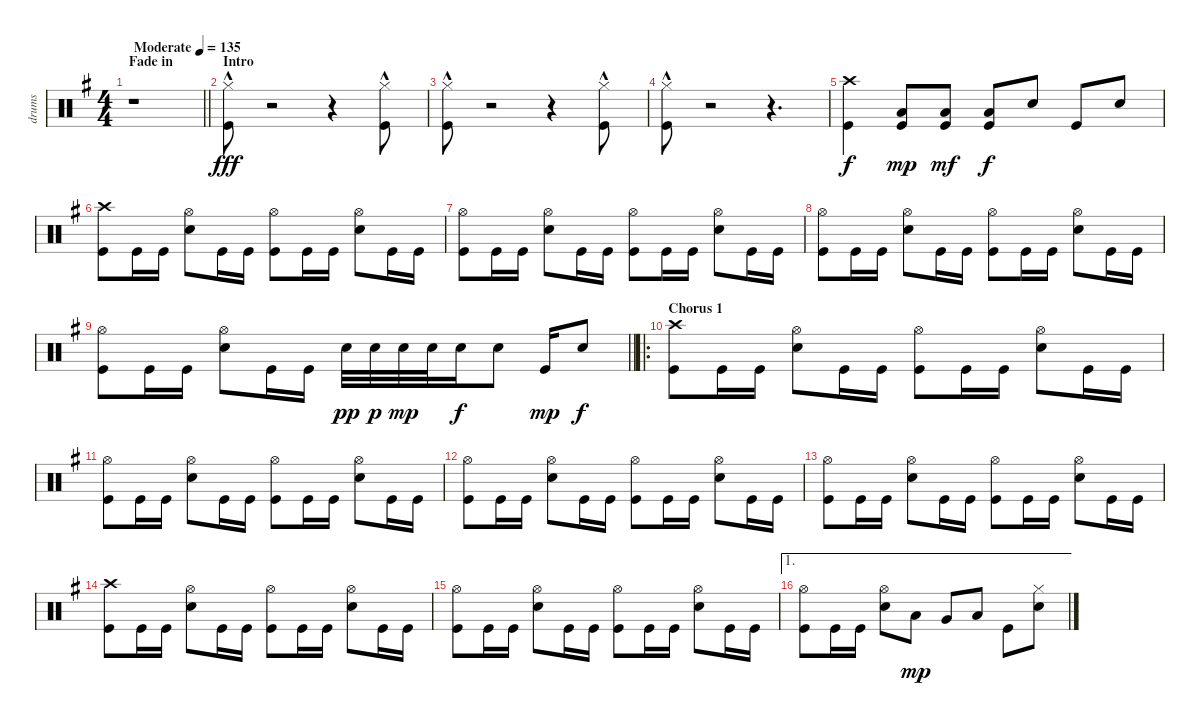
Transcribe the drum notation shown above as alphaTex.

\track ("drums" "drums") {instrument percussion}
\staff {score}
\articulation defaults
\ts (4 4)
\section ("" "Fade in")
\tempo (135 "Moderate")
\clef neutral
\barLineRight lightlight
\ks eminor
r.1{dy fff} |
\section ("" "Intro")
("Hi-Hat (closed)"{hac} "Kick (hit)"{hac}).8 r.2 r.4 ("Hi-Hat (closed)"{hac} "Kick (hit)"{hac}).8 |
("Hi-Hat (closed)"{hac} "Kick (hit)"{hac}).8 r.2 r.4 ("Hi-Hat (closed)"{hac} "Kick (hit)"{hac}).8 |
("Hi-Hat (closed)"{hac} "Kick (hit)"{hac}).8 r.2 r.4{d} |
("Crash high (hit)" "Kick (hit)").4{dy f} ("Low Floor Tom (hit)" "Kick (hit)").8{dy mp} ("Low Floor Tom (hit)" "Kick (hit)").8{dy mf} ("Low Floor Tom (hit)" "Kick (hit)").8{dy f} "Snare (hit) 2".8 "Kick (hit)".8 "Snare (hit) 2".8 |
("Crash high (hit)" "Kick (hit)").8 "Kick (hit)".16 "Kick (hit)".16 ("Hi-Hat (open)" "Snare (hit) 2").8 "Kick (hit)".16 "Kick (hit)".16 ("Hi-Hat (open)" "Kick (hit)").8 "Kick (hit)".16 "Kick (hit)".16 ("Hi-Hat (open)" "Snare (hit) 2").8 "Kick (hit)".16 "Kick (hit)".16 |
("Hi-Hat (open)" "Kick (hit)").8 "Kick (hit)".16 "Kick (hit)".16 ("Hi-Hat (open)" "Snare (hit) 2").8 "Kick (hit)".16 "Kick (hit)".16 ("Hi-Hat (open)" "Kick (hit)").8 "Kick (hit)".16 "Kick (hit)".16 ("Hi-Hat (open)" "Snare (hit) 2").8 "Kick (hit)".16 "Kick (hit)".16 |
("Hi-Hat (open)" "Kick (hit)").8 "Kick (hit)".16 "Kick (hit)".16 ("Hi-Hat (open)" "Snare (hit) 2").8 "Kick (hit)".16 "Kick (hit)".16 ("Hi-Hat (open)" "Kick (hit)").8 "Kick (hit)".16 "Kick (hit)".16 ("Hi-Hat (open)" "Snare (hit) 2").8 "Kick (hit)".16 "Kick (hit)".16 |
\barLineRight lightlight
("Hi-Hat (open)" "Kick (hit)").8 "Kick (hit)".16 "Kick (hit)".16 ("Hi-Hat (open)" "Snare (hit) 2").8 "Kick (hit)".16 "Kick (hit)".16 "Snare (hit) 2".32{dy pp} "Snare (hit) 2".32{dy p} "Snare (hit) 2".32{dy mp} "Snare (hit) 2".32 "Snare (hit) 2".16{dy f} "Snare (hit) 2".8 "Kick (hit)".16{dy mp} "Snare (hit) 2".8{dy f} |
\ro
\section ("" "Chorus 1")
("Crash high (hit)" "Kick (hit)").8 "Kick (hit)".16 "Kick (hit)".16 ("Hi-Hat (open)" "Snare (hit) 2").8 "Kick (hit)".16 "Kick (hit)".16 ("Hi-Hat (open)" "Kick (hit)").8 "Kick (hit)".16 "Kick (hit)".16 ("Hi-Hat (open)" "Snare (hit) 2").8 "Kick (hit)".16 "Kick (hit)".16 |
("Hi-Hat (open)" "Kick (hit)").8 "Kick (hit)".16 "Kick (hit)".16 ("Hi-Hat (open)" "Snare (hit) 2").8 "Kick (hit)".16 "Kick (hit)".16 ("Hi-Hat (open)" "Kick (hit)").8 "Kick (hit)".16 "Kick (hit)".16 ("Hi-Hat (open)" "Snare (hit) 2").8 "Kick (hit)".16 "Kick (hit)".16 |
("Hi-Hat (open)" "Kick (hit)").8 "Kick (hit)".16 "Kick (hit)".16 ("Hi-Hat (open)" "Snare (hit) 2").8 "Kick (hit)".16 "Kick (hit)".16 ("Hi-Hat (open)" "Kick (hit)").8 "Kick (hit)".16 "Kick (hit)".16 ("Hi-Hat (open)" "Snare (hit) 2").8 "Kick (hit)".16 "Kick (hit)".16 |
("Hi-Hat (open)" "Kick (hit)").8 "Kick (hit)".16 "Kick (hit)".16 ("Hi-Hat (open)" "Snare (hit) 2").8 "Kick (hit)".16 "Kick (hit)".16 ("Hi-Hat (open)" "Kick (hit)").8 "Kick (hit)".16 "Kick (hit)".16 ("Hi-Hat (open)" "Snare (hit) 2").8 "Kick (hit)".16 "Kick (hit)".16 |
("Crash high (hit)" "Kick (hit)").8 "Kick (hit)".16 "Kick (hit)".16 ("Hi-Hat (open)" "Snare (hit) 2").8 "Kick (hit)".16 "Kick (hit)".16 ("Hi-Hat (open)" "Kick (hit)").8 "Kick (hit)".16 "Kick (hit)".16 ("Hi-Hat (open)" "Snare (hit) 2").8 "Kick (hit)".16 "Kick (hit)".16 |
("Hi-Hat (open)" "Kick (hit)").8 "Kick (hit)".16 "Kick (hit)".16 ("Hi-Hat (open)" "Snare (hit) 2").8 "Kick (hit)".16 "Kick (hit)".16 ("Hi-Hat (open)" "Kick (hit)").8 "Kick (hit)".16 "Kick (hit)".16 ("Hi-Hat (open)" "Snare (hit) 2").8 "Kick (hit)".16 "Kick (hit)".16 |
\ae 1
("Hi-Hat (open)" "Kick (hit)").8 "Kick (hit)".16 "Kick (hit)".16 ("Hi-Hat (open)" "Snare (hit) 2").8 "Low Tom (hit)".8{dy mp} "Very Low Tom (hit)".8 "Low Floor Tom (hit)".8 "Kick (hit)".8 ("Hi-Hat (closed)" "Snare (hit) 2").8
